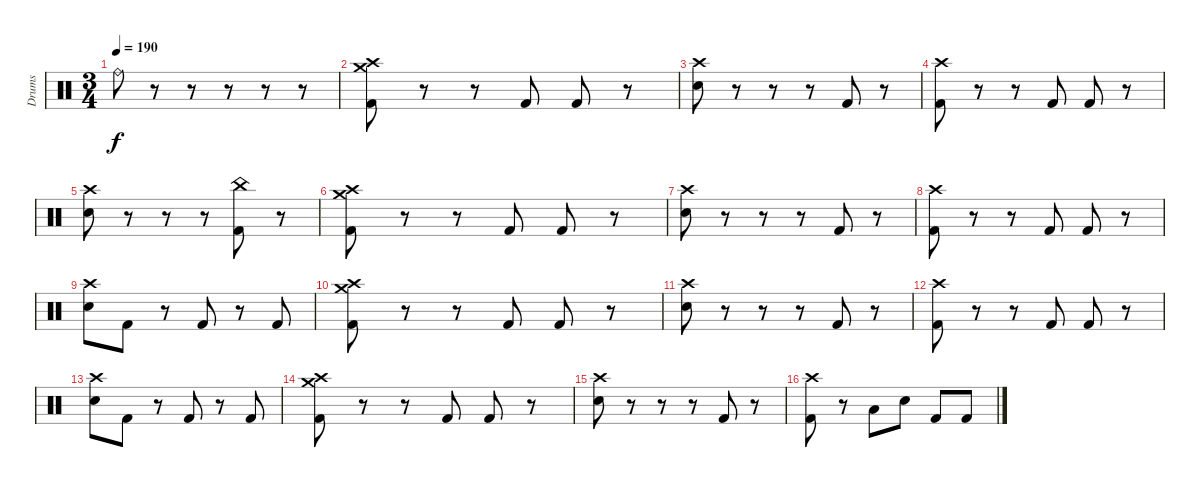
\track ("Drums" "Drums") {instrument percussion}
\staff {score}
\articulation defaults
\ts (3 4)
\tempo 190
\clef neutral
\ks c "Ride (bell)".8{dy f}
r.8 r.8 r.8 r.8 r.8 |
("Crash medium (hit)" "Crash high (hit)" "Kick (hit) 2").8 r.8 r.8 "Kick (hit) 2".8 "Kick (hit) 2".8 r.8 |
("Crash high (hit)" "Electric Snare (hit)").8 r.8 r.8 r.8 "Kick (hit) 2".8 r.8 |
("Crash high (hit)" "Kick (hit) 2").8 r.8 r.8 "Kick (hit) 2".8 "Kick (hit) 2".8 r.8 |
("Crash high (hit)" "Electric Snare (hit)").8 r.8 r.8 r.8 ("China (hit)" "Kick (hit) 2").8 r.8 |
("Crash medium (hit)" "Crash high (hit)" "Kick (hit) 2").8 r.8 r.8 "Kick (hit) 2".8 "Kick (hit) 2".8 r.8 |
("Crash high (hit)" "Electric Snare (hit)").8 r.8 r.8 r.8 "Kick (hit) 2".8 r.8 |
("Crash high (hit)" "Kick (hit) 2").8 r.8 r.8 "Kick (hit) 2".8 "Kick (hit) 2".8 r.8 |
("Crash high (hit)" "Electric Snare (hit)").8 "Kick (hit) 2".8 r.8 "Kick (hit) 2".8 r.8 "Kick (hit) 2".8 |
("Crash medium (hit)" "Crash high (hit)" "Kick (hit) 2").8 r.8 r.8 "Kick (hit) 2".8 "Kick (hit) 2".8 r.8 |
("Crash high (hit)" "Electric Snare (hit)").8 r.8 r.8 r.8 "Kick (hit) 2".8 r.8 |
("Crash high (hit)" "Kick (hit) 2").8 r.8 r.8 "Kick (hit) 2".8 "Kick (hit) 2".8 r.8 |
("Crash high (hit)" "Electric Snare (hit)").8 "Kick (hit) 2".8 r.8 "Kick (hit) 2".8 r.8 "Kick (hit) 2".8 |
("Crash medium (hit)" "Crash high (hit)" "Kick (hit) 2").8 r.8 r.8 "Kick (hit) 2".8 "Kick (hit) 2".8 r.8 |
("Crash high (hit)" "Electric Snare (hit)").8 r.8 r.8 r.8 "Kick (hit) 2".8 r.8 |
("Crash high (hit)" "Kick (hit) 2").8 r.8 "Low Floor Tom (hit)".8 "Electric Snare (hit)".8 "Kick (hit) 2".8 "Kick (hit) 2".8
